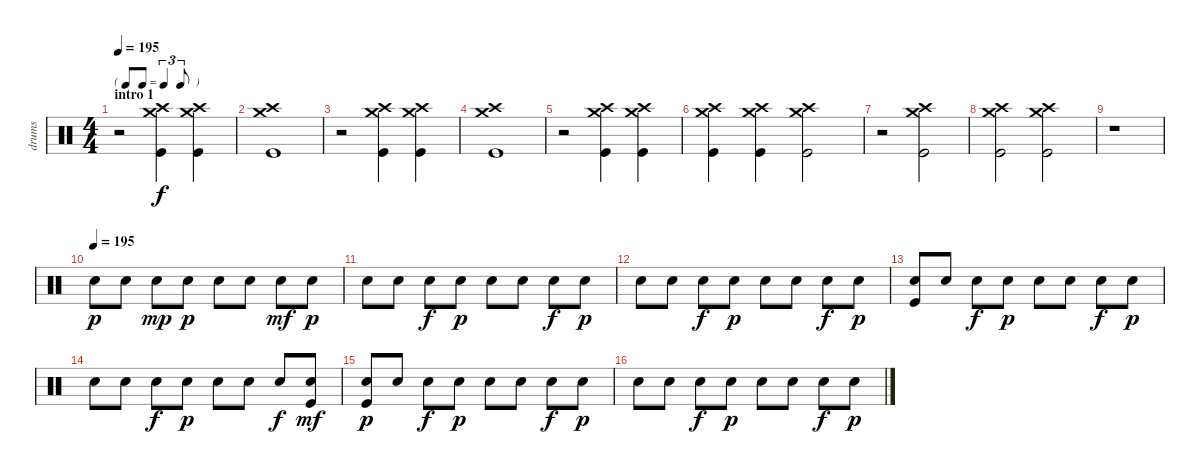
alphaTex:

\track ("drums" "drums") {instrument percussion}
\staff {score}
\articulation defaults
\ts (4 4)
\tf triplet8th
\section ("" "intro 1")
\tempo 195
\tempo 115
\tempo 195
\clef neutral
\ks c
r.2{dy f} ("Crash medium (hit)" "Crash high (hit)" "Kick (hit)").4 ("Crash medium (hit)" "Crash high (hit)" "Kick (hit)").4 |
("Crash medium (hit)" "Crash high (hit)" "Kick (hit)").1 |
r.2 ("Crash medium (hit)" "Crash high (hit)" "Kick (hit)").4 ("Crash medium (hit)" "Crash high (hit)" "Kick (hit)").4 |
("Crash medium (hit)" "Crash high (hit)" "Kick (hit)").1 |
r.2 ("Crash medium (hit)" "Crash high (hit)" "Kick (hit)").4 ("Crash medium (hit)" "Crash high (hit)" "Kick (hit)").4 |
("Crash medium (hit)" "Crash high (hit)" "Kick (hit)").4 ("Crash medium (hit)" "Crash high (hit)" "Kick (hit)").4 ("Crash medium (hit)" "Crash high (hit)" "Kick (hit)").2 |
r.2 ("Crash medium (hit)" "Crash high (hit)" "Kick (hit)").2 |
("Crash medium (hit)" "Crash high (hit)" "Kick (hit)").2 ("Crash medium (hit)" "Crash high (hit)" "Kick (hit)").2 |
r.1 |
\tempo (195)
"Snare (hit) 2".8{dy p} "Snare (hit) 2".8 "Snare (hit) 2".8{dy mp} "Snare (hit) 2".8{dy p} "Snare (hit) 2".8 "Snare (hit) 2".8 "Snare (hit) 2".8{dy mf} "Snare (hit) 2".8{dy p} |
"Snare (hit) 2".8 "Snare (hit) 2".8 "Snare (hit) 2".8{dy f} "Snare (hit) 2".8{dy p} "Snare (hit) 2".8 "Snare (hit) 2".8 "Snare (hit) 2".8{dy f} "Snare (hit) 2".8{dy p} |
"Snare (hit) 2".8 "Snare (hit) 2".8 "Snare (hit) 2".8{dy f} "Snare (hit) 2".8{dy p} "Snare (hit) 2".8 "Snare (hit) 2".8 "Snare (hit) 2".8{dy f} "Snare (hit) 2".8{dy p} |
("Snare (hit) 2" "Kick (hit)").8 "Snare (hit) 2".8 "Snare (hit) 2".8{dy f} "Snare (hit) 2".8{dy p} "Snare (hit) 2".8 "Snare (hit) 2".8 "Snare (hit) 2".8{dy f} "Snare (hit) 2".8{dy p} |
"Snare (hit) 2".8 "Snare (hit) 2".8 "Snare (hit) 2".8{dy f} "Snare (hit) 2".8{dy p} "Snare (hit) 2".8 "Snare (hit) 2".8 "Snare (hit) 2".8{dy f} ("Snare (hit) 2" "Kick (hit)").8{dy mf} |
("Snare (hit) 2" "Kick (hit)").8{dy p} "Snare (hit) 2".8 "Snare (hit) 2".8{dy f} "Snare (hit) 2".8{dy p} "Snare (hit) 2".8 "Snare (hit) 2".8 "Snare (hit) 2".8{dy f} "Snare (hit) 2".8{dy p} |
"Snare (hit) 2".8 "Snare (hit) 2".8 "Snare (hit) 2".8{dy f} "Snare (hit) 2".8{dy p} "Snare (hit) 2".8 "Snare (hit) 2".8 "Snare (hit) 2".8{dy f} "Snare (hit) 2".8{dy p}
